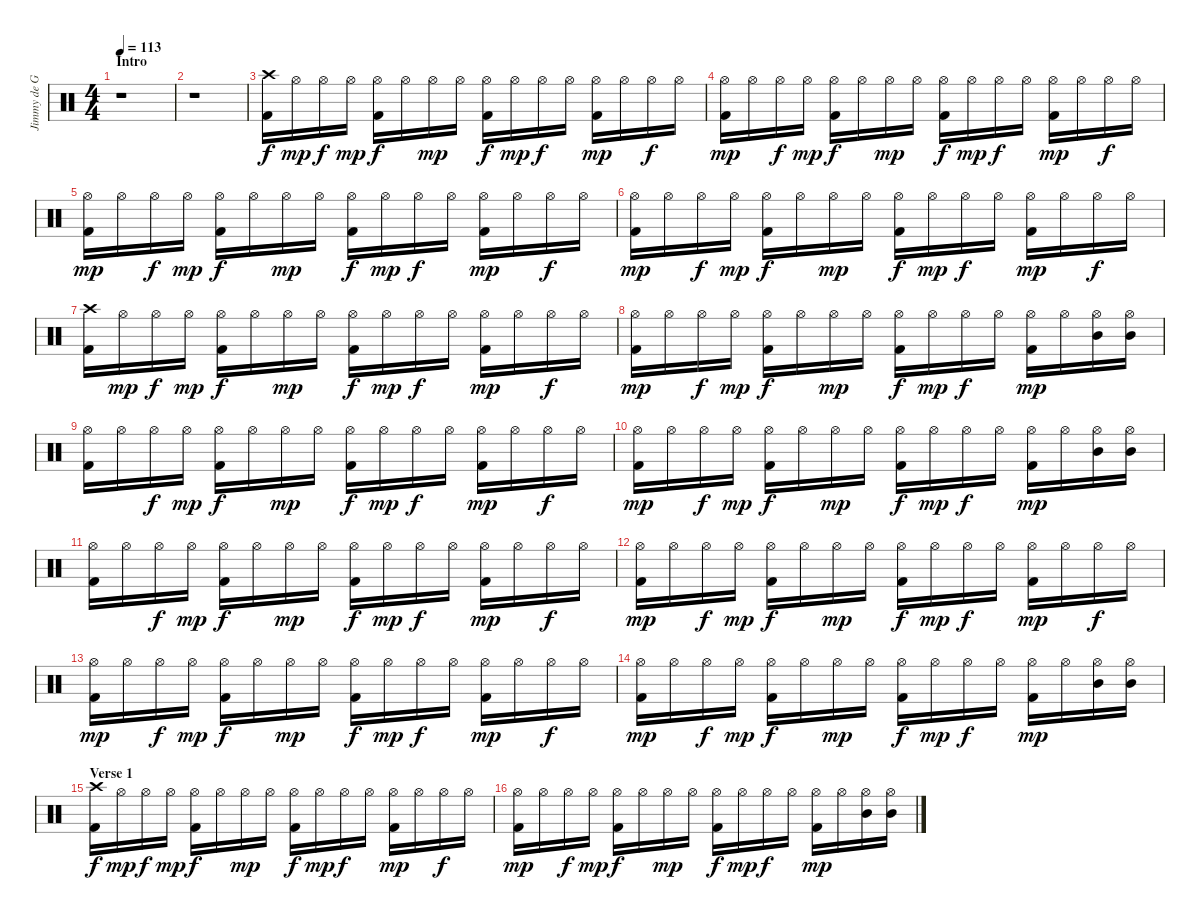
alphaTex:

\track ("Jimmy de Grasso" "Jimmy de G") {instrument percussion}
\staff {score}
\articulation defaults
\ts (4 4)
\section ("" "Intro")
\tempo 113
\clef neutral
\ks c
r.1{dy f} |
r.1 |
("Crash high (hit)" "Kick (hit) 2").16 "Hi-Hat (open)".16{dy mp} "Hi-Hat (open)".16{dy f} "Hi-Hat (open)".16{dy mp} ("Hi-Hat (open)" "Kick (hit) 2").16{dy f} "Hi-Hat (open)".16 "Hi-Hat (open)".16{dy mp} "Hi-Hat (open)".16 ("Hi-Hat (open)" "Kick (hit) 2").16{dy f} "Hi-Hat (open)".16{dy mp} "Hi-Hat (open)".16{dy f} "Hi-Hat (open)".16 ("Hi-Hat (open)" "Kick (hit) 2").16{dy mp} "Hi-Hat (open)".16 "Hi-Hat (open)".16{dy f} "Hi-Hat (open)".16 |
("Hi-Hat (open)" "Kick (hit) 2").16{dy mp} "Hi-Hat (open)".16 "Hi-Hat (open)".16{dy f} "Hi-Hat (open)".16{dy mp} ("Hi-Hat (open)" "Kick (hit) 2").16{dy f} "Hi-Hat (open)".16 "Hi-Hat (open)".16{dy mp} "Hi-Hat (open)".16 ("Hi-Hat (open)" "Kick (hit) 2").16{dy f} "Hi-Hat (open)".16{dy mp} "Hi-Hat (open)".16{dy f} "Hi-Hat (open)".16 ("Hi-Hat (open)" "Kick (hit) 2").16{dy mp} "Hi-Hat (open)".16 "Hi-Hat (open)".16{dy f} "Hi-Hat (open)".16 |
("Hi-Hat (open)" "Kick (hit) 2").16{dy mp} "Hi-Hat (open)".16 "Hi-Hat (open)".16{dy f} "Hi-Hat (open)".16{dy mp} ("Hi-Hat (open)" "Kick (hit) 2").16{dy f} "Hi-Hat (open)".16 "Hi-Hat (open)".16{dy mp} "Hi-Hat (open)".16 ("Hi-Hat (open)" "Kick (hit) 2").16{dy f} "Hi-Hat (open)".16{dy mp} "Hi-Hat (open)".16{dy f} "Hi-Hat (open)".16 ("Hi-Hat (open)" "Kick (hit) 2").16{dy mp} "Hi-Hat (open)".16 "Hi-Hat (open)".16{dy f} "Hi-Hat (open)".16 |
("Hi-Hat (open)" "Kick (hit) 2").16{dy mp} "Hi-Hat (open)".16 "Hi-Hat (open)".16{dy f} "Hi-Hat (open)".16{dy mp} ("Hi-Hat (open)" "Kick (hit) 2").16{dy f} "Hi-Hat (open)".16 "Hi-Hat (open)".16{dy mp} "Hi-Hat (open)".16 ("Hi-Hat (open)" "Kick (hit) 2").16{dy f} "Hi-Hat (open)".16{dy mp} "Hi-Hat (open)".16{dy f} "Hi-Hat (open)".16 ("Hi-Hat (open)" "Kick (hit) 2").16{dy mp} "Hi-Hat (open)".16 "Hi-Hat (open)".16{dy f} "Hi-Hat (open)".16 |
("Crash high (hit)" "Kick (hit) 2").16 "Hi-Hat (open)".16{dy mp} "Hi-Hat (open)".16{dy f} "Hi-Hat (open)".16{dy mp} ("Hi-Hat (open)" "Kick (hit) 2").16{dy f} "Hi-Hat (open)".16 "Hi-Hat (open)".16{dy mp} "Hi-Hat (open)".16 ("Hi-Hat (open)" "Kick (hit) 2").16{dy f} "Hi-Hat (open)".16{dy mp} "Hi-Hat (open)".16{dy f} "Hi-Hat (open)".16 ("Hi-Hat (open)" "Kick (hit) 2").16{dy mp} "Hi-Hat (open)".16 "Hi-Hat (open)".16{dy f} "Hi-Hat (open)".16 |
("Hi-Hat (open)" "Kick (hit) 2").16{dy mp} "Hi-Hat (open)".16 "Hi-Hat (open)".16{dy f} "Hi-Hat (open)".16{dy mp} ("Hi-Hat (open)" "Kick (hit) 2").16{dy f} "Hi-Hat (open)".16 "Hi-Hat (open)".16{dy mp} "Hi-Hat (open)".16 ("Hi-Hat (open)" "Kick (hit) 2").16{dy f} "Hi-Hat (open)".16{dy mp} "Hi-Hat (open)".16{dy f} "Hi-Hat (open)".16 ("Hi-Hat (open)" "Kick (hit) 2").16{dy mp} "Hi-Hat (open)".16 ("Hi-Hat (open)" "Mid Tom (hit)").16 ("Hi-Hat (open)" "Mid Tom (hit)").16 |
("Hi-Hat (open)" "Kick (hit) 2").16 "Hi-Hat (open)".16 "Hi-Hat (open)".16{dy f} "Hi-Hat (open)".16{dy mp} ("Hi-Hat (open)" "Kick (hit) 2").16{dy f} "Hi-Hat (open)".16 "Hi-Hat (open)".16{dy mp} "Hi-Hat (open)".16 ("Hi-Hat (open)" "Kick (hit) 2").16{dy f} "Hi-Hat (open)".16{dy mp} "Hi-Hat (open)".16{dy f} "Hi-Hat (open)".16 ("Hi-Hat (open)" "Kick (hit) 2").16{dy mp} "Hi-Hat (open)".16 "Hi-Hat (open)".16{dy f} "Hi-Hat (open)".16 |
("Hi-Hat (open)" "Kick (hit) 2").16{dy mp} "Hi-Hat (open)".16 "Hi-Hat (open)".16{dy f} "Hi-Hat (open)".16{dy mp} ("Hi-Hat (open)" "Kick (hit) 2").16{dy f} "Hi-Hat (open)".16 "Hi-Hat (open)".16{dy mp} "Hi-Hat (open)".16 ("Hi-Hat (open)" "Kick (hit) 2").16{dy f} "Hi-Hat (open)".16{dy mp} "Hi-Hat (open)".16{dy f} "Hi-Hat (open)".16 ("Hi-Hat (open)" "Kick (hit) 2").16{dy mp} "Hi-Hat (open)".16 ("Hi-Hat (open)" "Mid Tom (hit)").16 ("Hi-Hat (open)" "Mid Tom (hit)").16 |
("Hi-Hat (open)" "Kick (hit) 2").16 "Hi-Hat (open)".16 "Hi-Hat (open)".16{dy f} "Hi-Hat (open)".16{dy mp} ("Hi-Hat (open)" "Kick (hit) 2").16{dy f} "Hi-Hat (open)".16 "Hi-Hat (open)".16{dy mp} "Hi-Hat (open)".16 ("Hi-Hat (open)" "Kick (hit) 2").16{dy f} "Hi-Hat (open)".16{dy mp} "Hi-Hat (open)".16{dy f} "Hi-Hat (open)".16 ("Hi-Hat (open)" "Kick (hit) 2").16{dy mp} "Hi-Hat (open)".16 "Hi-Hat (open)".16{dy f} "Hi-Hat (open)".16 |
("Hi-Hat (open)" "Kick (hit) 2").16{dy mp} "Hi-Hat (open)".16 "Hi-Hat (open)".16{dy f} "Hi-Hat (open)".16{dy mp} ("Hi-Hat (open)" "Kick (hit) 2").16{dy f} "Hi-Hat (open)".16 "Hi-Hat (open)".16{dy mp} "Hi-Hat (open)".16 ("Hi-Hat (open)" "Kick (hit) 2").16{dy f} "Hi-Hat (open)".16{dy mp} "Hi-Hat (open)".16{dy f} "Hi-Hat (open)".16 ("Hi-Hat (open)" "Kick (hit) 2").16{dy mp} "Hi-Hat (open)".16 "Hi-Hat (open)".16{dy f} "Hi-Hat (open)".16 |
("Hi-Hat (open)" "Kick (hit) 2").16{dy mp} "Hi-Hat (open)".16 "Hi-Hat (open)".16{dy f} "Hi-Hat (open)".16{dy mp} ("Hi-Hat (open)" "Kick (hit) 2").16{dy f} "Hi-Hat (open)".16 "Hi-Hat (open)".16{dy mp} "Hi-Hat (open)".16 ("Hi-Hat (open)" "Kick (hit) 2").16{dy f} "Hi-Hat (open)".16{dy mp} "Hi-Hat (open)".16{dy f} "Hi-Hat (open)".16 ("Hi-Hat (open)" "Kick (hit) 2").16{dy mp} "Hi-Hat (open)".16 "Hi-Hat (open)".16{dy f} "Hi-Hat (open)".16 |
("Hi-Hat (open)" "Kick (hit) 2").16{dy mp} "Hi-Hat (open)".16 "Hi-Hat (open)".16{dy f} "Hi-Hat (open)".16{dy mp} ("Hi-Hat (open)" "Kick (hit) 2").16{dy f} "Hi-Hat (open)".16 "Hi-Hat (open)".16{dy mp} "Hi-Hat (open)".16 ("Hi-Hat (open)" "Kick (hit) 2").16{dy f} "Hi-Hat (open)".16{dy mp} "Hi-Hat (open)".16{dy f} "Hi-Hat (open)".16 ("Hi-Hat (open)" "Kick (hit) 2").16{dy mp} "Hi-Hat (open)".16 ("Hi-Hat (open)" "Mid Tom (hit)").16 ("Hi-Hat (open)" "Mid Tom (hit)").16 |
\section ("" "Verse 1")
("Crash high (hit)" "Kick (hit) 2").16{dy f} "Hi-Hat (open)".16{dy mp} "Hi-Hat (open)".16{dy f} "Hi-Hat (open)".16{dy mp} ("Hi-Hat (open)" "Kick (hit) 2").16{dy f} "Hi-Hat (open)".16 "Hi-Hat (open)".16{dy mp} "Hi-Hat (open)".16 ("Hi-Hat (open)" "Kick (hit) 2").16{dy f} "Hi-Hat (open)".16{dy mp} "Hi-Hat (open)".16{dy f} "Hi-Hat (open)".16 ("Hi-Hat (open)" "Kick (hit) 2").16{dy mp} "Hi-Hat (open)".16 "Hi-Hat (open)".16{dy f} "Hi-Hat (open)".16 |
("Hi-Hat (open)" "Kick (hit) 2").16{dy mp} "Hi-Hat (open)".16 "Hi-Hat (open)".16{dy f} "Hi-Hat (open)".16{dy mp} ("Hi-Hat (open)" "Kick (hit) 2").16{dy f} "Hi-Hat (open)".16 "Hi-Hat (open)".16{dy mp} "Hi-Hat (open)".16 ("Hi-Hat (open)" "Kick (hit) 2").16{dy f} "Hi-Hat (open)".16{dy mp} "Hi-Hat (open)".16{dy f} "Hi-Hat (open)".16 ("Hi-Hat (open)" "Kick (hit) 2").16{dy mp} "Hi-Hat (open)".16 ("Hi-Hat (open)" "Mid Tom (hit)").16 ("Hi-Hat (open)" "Mid Tom (hit)").16
